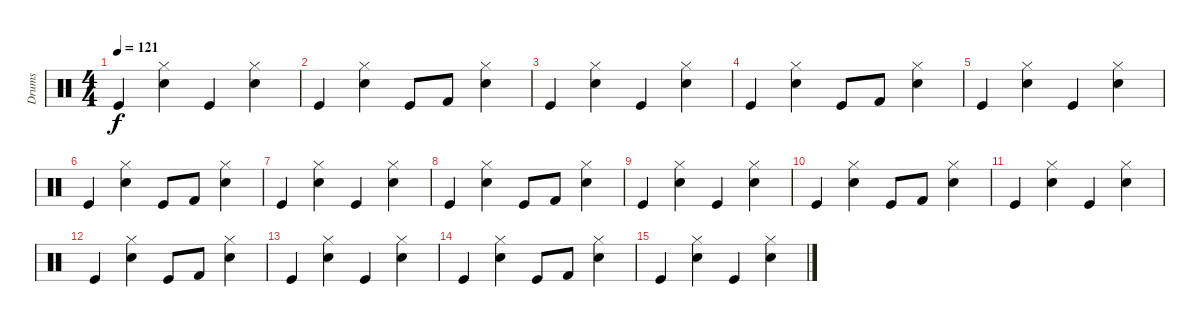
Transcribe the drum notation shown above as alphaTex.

\track ("Drums" "Drums") {instrument percussion}
\staff {score}
\articulation defaults
\ts (4 4)
\tempo 121
\clef neutral
\ks c "Kick (hit)".4{dy f}
("Hi-Hat (closed)" "Snare (hit) 2").4 "Kick (hit)".4 ("Hi-Hat (closed)" "Snare (hit) 2").4 |
"Kick (hit)".4 ("Hi-Hat (closed)" "Snare (hit) 2").4 "Kick (hit)".8 "Kick (hit) 2".8 ("Hi-Hat (closed)" "Snare (hit) 2").4 |
"Kick (hit)".4 ("Hi-Hat (closed)" "Snare (hit) 2").4 "Kick (hit)".4 ("Hi-Hat (closed)" "Snare (hit) 2").4 |
"Kick (hit)".4 ("Hi-Hat (closed)" "Snare (hit) 2").4 "Kick (hit)".8 "Kick (hit) 2".8 ("Hi-Hat (closed)" "Snare (hit) 2").4 |
"Kick (hit)".4 ("Hi-Hat (closed)" "Snare (hit) 2").4 "Kick (hit)".4 ("Hi-Hat (closed)" "Snare (hit) 2").4 |
"Kick (hit)".4 ("Hi-Hat (closed)" "Snare (hit) 2").4 "Kick (hit)".8 "Kick (hit) 2".8 ("Hi-Hat (closed)" "Snare (hit) 2").4 |
"Kick (hit)".4 ("Hi-Hat (closed)" "Snare (hit) 2").4 "Kick (hit)".4 ("Hi-Hat (closed)" "Snare (hit) 2").4 |
"Kick (hit)".4 ("Hi-Hat (closed)" "Snare (hit) 2").4 "Kick (hit)".8 "Kick (hit) 2".8 ("Hi-Hat (closed)" "Snare (hit) 2").4 |
"Kick (hit)".4 ("Hi-Hat (closed)" "Snare (hit) 2").4 "Kick (hit)".4 ("Hi-Hat (closed)" "Snare (hit) 2").4 |
"Kick (hit)".4 ("Hi-Hat (closed)" "Snare (hit) 2").4 "Kick (hit)".8 "Kick (hit) 2".8 ("Hi-Hat (closed)" "Snare (hit) 2").4 |
"Kick (hit)".4 ("Hi-Hat (closed)" "Snare (hit) 2").4 "Kick (hit)".4 ("Hi-Hat (closed)" "Snare (hit) 2").4 |
"Kick (hit)".4 ("Hi-Hat (closed)" "Snare (hit) 2").4 "Kick (hit)".8 "Kick (hit) 2".8 ("Hi-Hat (closed)" "Snare (hit) 2").4 |
"Kick (hit)".4 ("Hi-Hat (closed)" "Snare (hit) 2").4 "Kick (hit)".4 ("Hi-Hat (closed)" "Snare (hit) 2").4 |
"Kick (hit)".4 ("Hi-Hat (closed)" "Snare (hit) 2").4 "Kick (hit)".8 "Kick (hit) 2".8 ("Hi-Hat (closed)" "Snare (hit) 2").4 |
"Kick (hit)".4 ("Hi-Hat (closed)" "Snare (hit) 2").4 "Kick (hit)".4 ("Hi-Hat (closed)" "Snare (hit) 2").4
